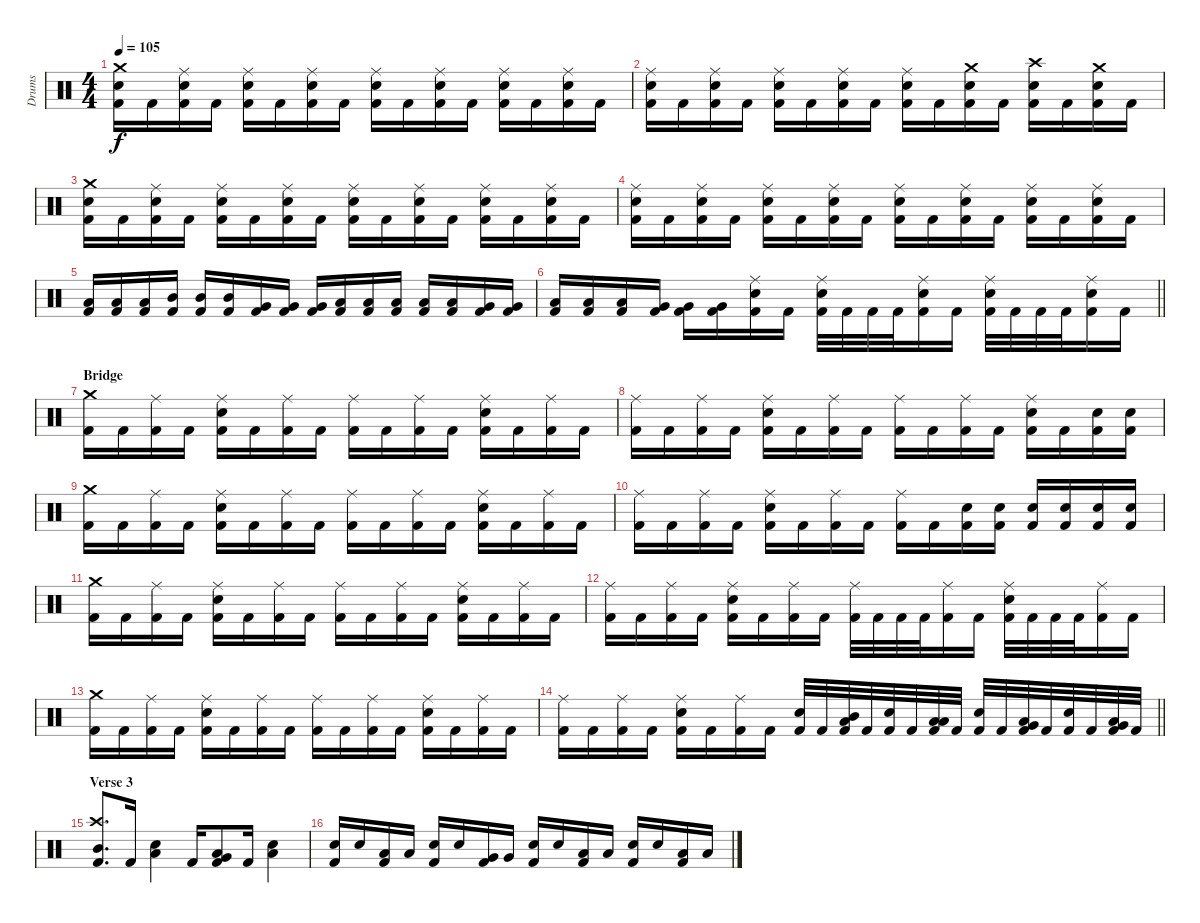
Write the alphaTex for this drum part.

\track ("Drums" "Drums") {instrument percussion}
\staff {score}
\articulation defaults
\ts (4 4)
\tempo 105
\clef neutral
\ks c
("Kick (hit) 2" "Snare (hit) 2" "Crash medium (hit)").16{dy f} "Kick (hit) 2".16 ("Kick (hit) 2" "Snare (hit) 2" "Ride (middle)").16 "Kick (hit) 2".16 ("Kick (hit) 2" "Snare (hit) 2" "Ride (middle)").16 "Kick (hit) 2".16 ("Kick (hit) 2" "Snare (hit) 2" "Ride (middle)").16 "Kick (hit) 2".16 ("Kick (hit) 2" "Snare (hit) 2" "Ride (middle)").16 "Kick (hit) 2".16 ("Kick (hit) 2" "Snare (hit) 2" "Ride (middle)").16 "Kick (hit) 2".16 ("Kick (hit) 2" "Snare (hit) 2" "Ride (middle)").16 "Kick (hit) 2".16 ("Kick (hit) 2" "Snare (hit) 2" "Ride (middle)").16 "Kick (hit) 2".16 |
("Kick (hit) 2" "Snare (hit) 2" "Ride (middle)").16 "Kick (hit) 2".16 ("Kick (hit) 2" "Snare (hit) 2" "Ride (middle)").16 "Kick (hit) 2".16 ("Kick (hit) 2" "Snare (hit) 2" "Ride (middle)").16 "Kick (hit) 2".16 ("Kick (hit) 2" "Snare (hit) 2" "Ride (middle)").16 "Kick (hit) 2".16 ("Kick (hit) 2" "Snare (hit) 2" "Ride (middle)").16 "Kick (hit) 2".16 ("Kick (hit) 2" "Snare (hit) 2" "Crash medium (hit)").16 "Kick (hit) 2".16 ("Kick (hit) 2" "Snare (hit) 2" "Crash high (hit)").16 "Kick (hit) 2".16 ("Kick (hit) 2" "Snare (hit) 2" "Crash medium (hit)").16 "Kick (hit) 2".16 |
("Kick (hit) 2" "Snare (hit) 2" "Crash medium (hit)").16 "Kick (hit) 2".16 ("Kick (hit) 2" "Snare (hit) 2" "Ride (middle)").16 "Kick (hit) 2".16 ("Kick (hit) 2" "Snare (hit) 2" "Ride (middle)").16 "Kick (hit) 2".16 ("Kick (hit) 2" "Snare (hit) 2" "Ride (middle)").16 "Kick (hit) 2".16 ("Kick (hit) 2" "Snare (hit) 2" "Ride (middle)").16 "Kick (hit) 2".16 ("Kick (hit) 2" "Snare (hit) 2" "Ride (middle)").16 "Kick (hit) 2".16 ("Kick (hit) 2" "Snare (hit) 2" "Ride (middle)").16 "Kick (hit) 2".16 ("Kick (hit) 2" "Snare (hit) 2" "Ride (middle)").16 "Kick (hit) 2".16 |
("Kick (hit) 2" "Snare (hit) 2" "Ride (middle)").16 "Kick (hit) 2".16 ("Kick (hit) 2" "Snare (hit) 2" "Ride (middle)").16 "Kick (hit) 2".16 ("Kick (hit) 2" "Snare (hit) 2" "Ride (middle)").16 "Kick (hit) 2".16 ("Kick (hit) 2" "Snare (hit) 2" "Ride (middle)").16 "Kick (hit) 2".16 ("Kick (hit) 2" "Snare (hit) 2" "Ride (middle)").16 "Kick (hit) 2".16 ("Kick (hit) 2" "Snare (hit) 2" "Ride (middle)").16 "Kick (hit) 2".16 ("Kick (hit) 2" "Snare (hit) 2" "Ride (middle)").16 "Kick (hit) 2".16 ("Kick (hit) 2" "Snare (hit) 2" "Ride (middle)").16 "Kick (hit) 2".16 |
("Kick (hit) 2" "Low Tom (hit)").16 ("Kick (hit) 2" "Low Tom (hit)").16 ("Kick (hit) 2" "Low Tom (hit)").16 ("Kick (hit) 2" "Mid Tom (hit)").16 ("Kick (hit) 2" "Mid Tom (hit)").16 ("Kick (hit) 2" "Mid Tom (hit)").16 ("Kick (hit) 2" "Very Low Tom (hit)").16 ("Kick (hit) 2" "Very Low Tom (hit)").16 ("Kick (hit) 2" "Very Low Tom (hit)").16 ("Kick (hit) 2" "Low Tom (hit)").16 ("Kick (hit) 2" "Low Tom (hit)").16 ("Kick (hit) 2" "Low Tom (hit)").16 ("Kick (hit) 2" "Low Floor Tom (hit)").16 ("Kick (hit) 2" "Low Floor Tom (hit)").16 ("Kick (hit) 2" "Very Low Tom (hit)").16 ("Kick (hit) 2" "Very Low Tom (hit)").16 |
\barLineRight lightlight
("Kick (hit) 2" "Low Tom (hit)").16 ("Kick (hit) 2" "Low Tom (hit)").16 ("Kick (hit) 2" "Low Tom (hit)").16 ("Kick (hit) 2" "Very Low Tom (hit)").16 ("Kick (hit) 2" "Very Low Tom (hit)").16 ("Kick (hit) 2" "Very Low Tom (hit)").16 ("Kick (hit) 2" "Snare (hit) 2" "Ride (middle)").16 "Kick (hit) 2".16 ("Kick (hit) 2" "Snare (hit) 2" "Ride (middle)").32 "Kick (hit) 2".32 "Kick (hit) 2".32 "Kick (hit) 2".32 ("Kick (hit) 2" "Snare (hit) 2" "Ride (middle)").16 "Kick (hit) 2".16 ("Kick (hit) 2" "Snare (hit) 2" "Ride (middle)").32 "Kick (hit) 2".32 "Kick (hit) 2".32 "Kick (hit) 2".32 ("Kick (hit) 2" "Snare (hit) 2" "Ride (middle)").16 "Kick (hit) 2".16 |
\section ("" "Bridge")
("Kick (hit) 2" "Crash medium (hit)").16 "Kick (hit) 2".16 ("Kick (hit) 2" "Ride (middle)").16 "Kick (hit) 2".16 ("Kick (hit) 2" "Snare (hit) 2" "Ride (middle)").16 "Kick (hit) 2".16 ("Kick (hit) 2" "Ride (middle)").16 "Kick (hit) 2".16 ("Kick (hit) 2" "Ride (middle)").16 "Kick (hit) 2".16 ("Kick (hit) 2" "Ride (middle)").16 "Kick (hit) 2".16 ("Kick (hit) 2" "Snare (hit) 2" "Ride (middle)").16 "Kick (hit) 2".16 ("Kick (hit) 2" "Ride (middle)").16 "Kick (hit) 2".16 |
("Kick (hit) 2" "Ride (middle)").16 "Kick (hit) 2".16 ("Kick (hit) 2" "Ride (middle)").16 "Kick (hit) 2".16 ("Kick (hit) 2" "Snare (hit) 2" "Ride (middle)").16 "Kick (hit) 2".16 ("Kick (hit) 2" "Ride (middle)").16 "Kick (hit) 2".16 ("Kick (hit) 2" "Ride (middle)").16 "Kick (hit) 2".16 ("Kick (hit) 2" "Ride (middle)").16 "Kick (hit) 2".16 ("Kick (hit) 2" "Snare (hit) 2" "Ride (middle)").16 "Kick (hit) 2".16 ("Kick (hit) 2" "Snare (hit) 2").16 ("Kick (hit) 2" "Snare (hit) 2").16 |
("Kick (hit) 2" "Crash medium (hit)").16 "Kick (hit) 2".16 ("Kick (hit) 2" "Ride (middle)").16 "Kick (hit) 2".16 ("Kick (hit) 2" "Snare (hit) 2" "Ride (middle)").16 "Kick (hit) 2".16 ("Kick (hit) 2" "Ride (middle)").16 "Kick (hit) 2".16 ("Kick (hit) 2" "Ride (middle)").16 "Kick (hit) 2".16 ("Kick (hit) 2" "Ride (middle)").16 "Kick (hit) 2".16 ("Kick (hit) 2" "Snare (hit) 2" "Ride (middle)").16 "Kick (hit) 2".16 ("Kick (hit) 2" "Ride (middle)").16 "Kick (hit) 2".16 |
("Kick (hit) 2" "Ride (middle)").16 "Kick (hit) 2".16 ("Kick (hit) 2" "Ride (middle)").16 "Kick (hit) 2".16 ("Kick (hit) 2" "Snare (hit) 2" "Ride (middle)").16 "Kick (hit) 2".16 ("Kick (hit) 2" "Ride (middle)").16 "Kick (hit) 2".16 ("Kick (hit) 2" "Ride (middle)").16 "Kick (hit) 2".16 ("Kick (hit) 2" "Snare (hit) 2").16 ("Kick (hit) 2" "Snare (hit) 2").16 ("Kick (hit) 2" "Snare (hit) 2").16 ("Kick (hit) 2" "Snare (hit) 2").16 ("Kick (hit) 2" "Snare (hit) 2").16 ("Kick (hit) 2" "Snare (hit) 2").16 |
("Kick (hit) 2" "Crash medium (hit)").16 "Kick (hit) 2".16 ("Kick (hit) 2" "Ride (middle)").16 "Kick (hit) 2".16 ("Kick (hit) 2" "Snare (hit) 2" "Ride (middle)").16 "Kick (hit) 2".16 ("Kick (hit) 2" "Ride (middle)").16 "Kick (hit) 2".16 ("Kick (hit) 2" "Ride (middle)").16 "Kick (hit) 2".16 ("Kick (hit) 2" "Ride (middle)").16 "Kick (hit) 2".16 ("Kick (hit) 2" "Snare (hit) 2" "Ride (middle)").16 "Kick (hit) 2".16 ("Kick (hit) 2" "Ride (middle)").16 "Kick (hit) 2".16 |
("Kick (hit) 2" "Ride (middle)").16 "Kick (hit) 2".16 ("Kick (hit) 2" "Ride (middle)").16 "Kick (hit) 2".16 ("Kick (hit) 2" "Snare (hit) 2" "Ride (middle)").16 "Kick (hit) 2".16 ("Kick (hit) 2" "Ride (middle)").16 "Kick (hit) 2".16 ("Kick (hit) 2" "Ride (middle)").32 "Kick (hit) 2".32 "Kick (hit) 2".32 "Kick (hit) 2".32 ("Kick (hit) 2" "Ride (middle)").16 "Kick (hit) 2".16 ("Kick (hit) 2" "Snare (hit) 2" "Ride (middle)").32 "Kick (hit) 2".32 "Kick (hit) 2".32 "Kick (hit) 2".32 ("Kick (hit) 2" "Ride (middle)").16 "Kick (hit) 2".16 |
("Kick (hit) 2" "Crash medium (hit)").16 "Kick (hit) 2".16 ("Kick (hit) 2" "Ride (middle)").16 "Kick (hit) 2".16 ("Kick (hit) 2" "Snare (hit) 2" "Ride (middle)").16 "Kick (hit) 2".16 ("Kick (hit) 2" "Ride (middle)").16 "Kick (hit) 2".16 ("Kick (hit) 2" "Ride (middle)").16 "Kick (hit) 2".16 ("Kick (hit) 2" "Ride (middle)").16 "Kick (hit) 2".16 ("Kick (hit) 2" "Snare (hit) 2" "Ride (middle)").16 "Kick (hit) 2".16 ("Kick (hit) 2" "Ride (middle)").16 "Kick (hit) 2".16 |
\barLineRight lightlight
("Kick (hit) 2" "Ride (middle)").16 "Kick (hit) 2".16 ("Kick (hit) 2" "Ride (middle)").16 "Kick (hit) 2".16 ("Kick (hit) 2" "Snare (hit) 2" "Ride (middle)").16 "Kick (hit) 2".16 ("Kick (hit) 2" "Ride (middle)").16 "Kick (hit) 2".16 ("Kick (hit) 2" "Snare (hit) 2").32 "Kick (hit) 2".32 ("Kick (hit) 2" "Mid Tom (hit)" "Low Tom (hit)").32 "Kick (hit) 2".32 ("Kick (hit) 2" "Snare (hit) 2").32 "Kick (hit) 2".32 ("Kick (hit) 2" "Low Tom (hit)" "Low Tom (hit)").32 "Kick (hit) 2".32 ("Kick (hit) 2" "Snare (hit) 2").32 "Kick (hit) 2".32 ("Kick (hit) 2" "Low Tom (hit)" "Very Low Tom (hit)").32 "Kick (hit) 2".32 ("Kick (hit) 2" "Snare (hit) 2").32 "Kick (hit) 2".32 ("Kick (hit) 2" "Very Low Tom (hit)" "Low Floor Tom (hit)").32 "Kick (hit) 2".32 |
\section ("" "Verse 3")
("Kick (hit) 2" "Mid Tom (hit)" "Crash high (hit)").8{d} "Kick (hit) 2".16 ("Snare (hit) 2" "Low Tom (hit)").4 "Kick (hit) 2".16 ("Kick (hit) 2" "Very Low Tom (hit)" "Low Floor Tom (hit)").8 "Kick (hit) 2".16 ("Snare (hit) 2" "Low Tom (hit)").4 |
("Kick (hit) 2" "Snare (hit) 2").16 "Snare (hit) 2".16 ("Kick (hit) 2" "Low Tom (hit)").16 "Low Tom (hit)".16 ("Kick (hit) 2" "Snare (hit) 2").16 "Snare (hit) 2".16 ("Kick (hit) 2" "Very Low Tom (hit)").16 "Very Low Tom (hit)".16 ("Kick (hit) 2" "Snare (hit) 2").16 "Snare (hit) 2".16 ("Kick (hit) 2" "Low Tom (hit)").16 "Low Tom (hit)".16 ("Kick (hit) 2" "Snare (hit) 2").16 "Snare (hit) 2".16 ("Kick (hit) 2" "Low Floor Tom (hit)").16 "Low Floor Tom (hit)".16
